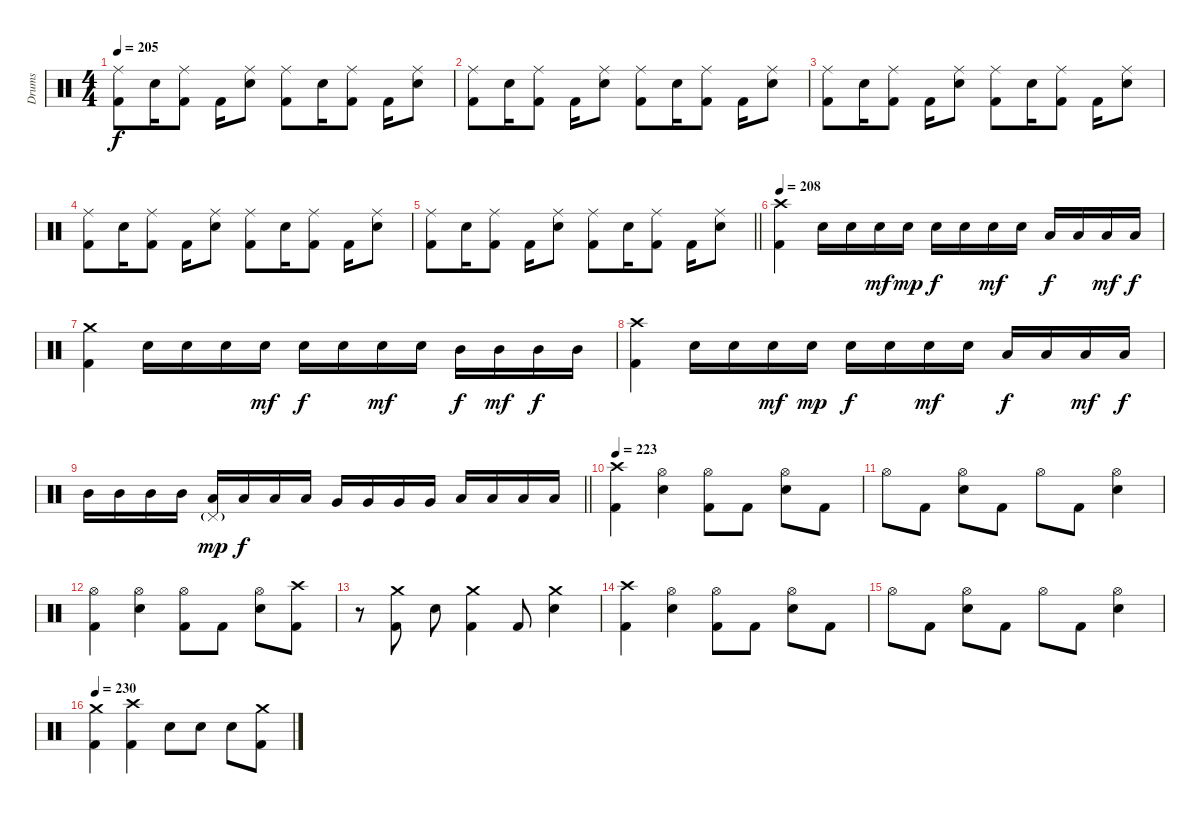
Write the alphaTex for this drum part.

\track ("Drums" "Drums") {instrument percussion}
\staff {score}
\articulation defaults
\ts (4 4)
\tempo 205
\clef neutral
\ks c
("Ride (middle)" "Kick (hit) 2").8{dy f} "Electric Snare (hit)".16 ("Ride (middle)" "Kick (hit) 2").8 "Kick (hit) 2".16 ("Ride (middle)" "Electric Snare (hit)").8 ("Ride (middle)" "Kick (hit) 2").8 "Electric Snare (hit)".16 ("Ride (middle)" "Kick (hit) 2").8 "Kick (hit) 2".16 ("Ride (middle)" "Electric Snare (hit)").8 |
("Ride (middle)" "Kick (hit) 2").8 "Electric Snare (hit)".16 ("Ride (middle)" "Kick (hit) 2").8 "Kick (hit) 2".16 ("Ride (middle)" "Electric Snare (hit)").8 ("Ride (middle)" "Kick (hit) 2").8 "Electric Snare (hit)".16 ("Ride (middle)" "Kick (hit) 2").8 "Kick (hit) 2".16 ("Ride (middle)" "Electric Snare (hit)").8 |
("Ride (middle)" "Kick (hit) 2").8 "Electric Snare (hit)".16 ("Ride (middle)" "Kick (hit) 2").8 "Kick (hit) 2".16 ("Ride (middle)" "Electric Snare (hit)").8 ("Ride (middle)" "Kick (hit) 2").8 "Electric Snare (hit)".16 ("Ride (middle)" "Kick (hit) 2").8 "Kick (hit) 2".16 ("Ride (middle)" "Electric Snare (hit)").8 |
("Ride (middle)" "Kick (hit) 2").8 "Electric Snare (hit)".16 ("Ride (middle)" "Kick (hit) 2").8 "Kick (hit) 2".16 ("Ride (middle)" "Electric Snare (hit)").8 ("Ride (middle)" "Kick (hit) 2").8 "Electric Snare (hit)".16 ("Ride (middle)" "Kick (hit) 2").8 "Kick (hit) 2".16 ("Ride (middle)" "Electric Snare (hit)").8 |
\barLineRight lightlight
("Ride (middle)" "Kick (hit) 2").8 "Electric Snare (hit)".16 ("Ride (middle)" "Kick (hit) 2").8 "Kick (hit) 2".16 ("Ride (middle)" "Electric Snare (hit)").8 ("Ride (middle)" "Kick (hit) 2").8 "Electric Snare (hit)".16 ("Ride (middle)" "Kick (hit) 2").8 "Kick (hit) 2".16 ("Ride (middle)" "Electric Snare (hit)").8 |
\section ("" "")
\tempo 208
("Crash high (hit)" "Kick (hit) 2").4 "Electric Snare (hit)".16 "Electric Snare (hit)".16 "Electric Snare (hit)".16{dy mf} "Electric Snare (hit)".16{dy mp} "Electric Snare (hit)".16{dy f} "Electric Snare (hit)".16 "Electric Snare (hit)".16{dy mf} "Electric Snare (hit)".16 "Low Tom (hit)".16{dy f} "Low Tom (hit)".16 "Low Tom (hit)".16{dy mf} "Low Tom (hit)".16{dy f} |
("Crash medium (hit)" "Kick (hit) 2").4 "Electric Snare (hit)".16 "Electric Snare (hit)".16 "Electric Snare (hit)".16 "Electric Snare (hit)".16{dy mf} "Electric Snare (hit)".16{dy f} "Electric Snare (hit)".16 "Electric Snare (hit)".16{dy mf} "Electric Snare (hit)".16 "Mid Tom (hit)".16{dy f} "Mid Tom (hit)".16{dy mf} "Mid Tom (hit)".16{dy f} "Mid Tom (hit)".16 |
("Crash high (hit)" "Kick (hit) 2").4 "Electric Snare (hit)".16 "Electric Snare (hit)".16 "Electric Snare (hit)".16{dy mf} "Electric Snare (hit)".16{dy mp} "Electric Snare (hit)".16{dy f} "Electric Snare (hit)".16 "Electric Snare (hit)".16{dy mf} "Electric Snare (hit)".16 "Low Tom (hit)".16{dy f} "Low Tom (hit)".16 "Low Tom (hit)".16{dy mf} "Low Tom (hit)".16{dy f} |
\barLineRight lightlight "Mid Tom (hit)".16 "Mid Tom (hit)".16 "Mid Tom (hit)".16 "Mid Tom (hit)".16
("Pedal Hi-Hat (hit)"{g} "Low Tom (hit)").16{dy mp} "Low Tom (hit)".16{dy f} "Low Tom (hit)".16 "Low Tom (hit)".16 "Very Low Tom (hit)".16 "Very Low Tom (hit)".16 "Very Low Tom (hit)".16 "Very Low Tom (hit)".16 "Low Floor Tom (hit)".16 "Low Floor Tom (hit)".16 "Low Floor Tom (hit)".16 "Low Floor Tom (hit)".16 |
\section ("" "")
\tempo 223
("Crash high (hit)" "Kick (hit) 2").4 ("Hi-Hat (open)" "Electric Snare (hit)").4 ("Hi-Hat (open)" "Kick (hit) 2").8 "Kick (hit) 2".8 ("Hi-Hat (open)" "Electric Snare (hit)").8 "Kick (hit) 2".8 |
"Hi-Hat (open)".8 "Kick (hit) 2".8 ("Hi-Hat (open)" "Electric Snare (hit)").8 "Kick (hit) 2".8 "Hi-Hat (open)".8 "Kick (hit) 2".8 ("Hi-Hat (open)" "Electric Snare (hit)").4 |
("Hi-Hat (open)" "Kick (hit) 2").4 ("Hi-Hat (open)" "Electric Snare (hit)").4 ("Hi-Hat (open)" "Kick (hit) 2").8 "Kick (hit) 2".8 ("Hi-Hat (open)" "Electric Snare (hit)").8 ("Crash high (hit)" "Kick (hit) 2").8 |
r.8 ("Crash medium (hit)" "Kick (hit) 2").8 "Electric Snare (hit)".8 ("Crash medium (hit)" "Kick (hit) 2").4 "Kick (hit) 2".8 ("Crash medium (hit)" "Electric Snare (hit)").4 |
("Crash high (hit)" "Kick (hit) 2").4 ("Hi-Hat (open)" "Electric Snare (hit)").4 ("Hi-Hat (open)" "Kick (hit) 2").8 "Kick (hit) 2".8 ("Hi-Hat (open)" "Electric Snare (hit)").8 "Kick (hit) 2".8 |
"Hi-Hat (open)".8 "Kick (hit) 2".8 ("Hi-Hat (open)" "Electric Snare (hit)").8 "Kick (hit) 2".8 "Hi-Hat (open)".8 "Kick (hit) 2".8 ("Hi-Hat (open)" "Electric Snare (hit)").4 |
\tempo 230
("Crash medium (hit)" "Kick (hit) 2").4 ("Crash high (hit)" "Kick (hit) 2").4 "Electric Snare (hit)".8 "Electric Snare (hit)".8 "Electric Snare (hit)".8 ("Crash medium (hit)" "Kick (hit) 2").8
